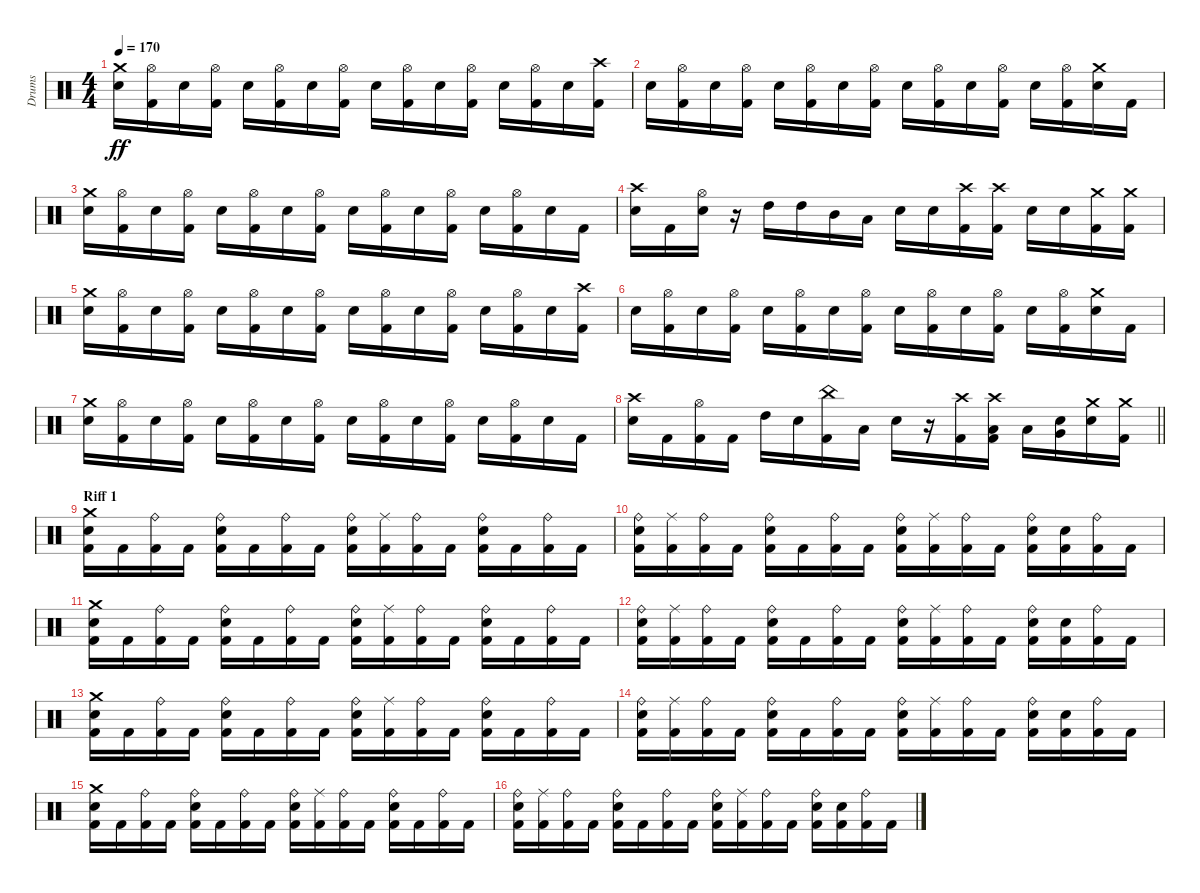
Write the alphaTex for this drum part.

\track ("Drums" "Drums") {instrument percussion}
\staff {score}
\articulation defaults
\ts (4 4)
\tempo 170
\clef neutral
\ks c
("Crash medium (hit)" "Snare (hit) 2").16{dy ff} ("Hi-Hat (open)" "Kick (hit) 2").16 "Snare (hit) 2".16 ("Hi-Hat (open)" "Kick (hit) 2").16 "Snare (hit) 2".16 ("Hi-Hat (open)" "Kick (hit) 2").16 "Snare (hit) 2".16 ("Hi-Hat (open)" "Kick (hit) 2").16 "Snare (hit) 2".16 ("Hi-Hat (open)" "Kick (hit) 2").16 "Snare (hit) 2".16 ("Hi-Hat (open)" "Kick (hit) 2").16 "Snare (hit) 2".16 ("Hi-Hat (open)" "Kick (hit) 2").16 "Snare (hit) 2".16 ("Crash high (hit)" "Kick (hit) 2").16 |
"Snare (hit) 2".16 ("Hi-Hat (open)" "Kick (hit) 2").16 "Snare (hit) 2".16 ("Hi-Hat (open)" "Kick (hit) 2").16 "Snare (hit) 2".16 ("Hi-Hat (open)" "Kick (hit) 2").16 "Snare (hit) 2".16 ("Hi-Hat (open)" "Kick (hit) 2").16 "Snare (hit) 2".16 ("Hi-Hat (open)" "Kick (hit) 2").16 "Snare (hit) 2".16 ("Hi-Hat (open)" "Kick (hit) 2").16 "Snare (hit) 2".16 ("Hi-Hat (open)" "Kick (hit) 2").16 ("Crash medium (hit)" "Snare (hit) 2").16 "Kick (hit) 2".16 |
("Crash medium (hit)" "Snare (hit) 2").16 ("Hi-Hat (open)" "Kick (hit) 2").16 "Snare (hit) 2".16 ("Hi-Hat (open)" "Kick (hit) 2").16 "Snare (hit) 2".16 ("Hi-Hat (open)" "Kick (hit) 2").16 "Snare (hit) 2".16 ("Hi-Hat (open)" "Kick (hit) 2").16 "Snare (hit) 2".16 ("Hi-Hat (open)" "Kick (hit) 2").16 "Snare (hit) 2".16 ("Hi-Hat (open)" "Kick (hit) 2").16 "Snare (hit) 2".16 ("Hi-Hat (open)" "Kick (hit) 2").16 "Snare (hit) 2".16 "Kick (hit) 2".16 |
("Crash high (hit)" "Snare (hit) 2").16 "Kick (hit) 2".16 ("Hi-Hat (open)" "Snare (hit) 2").16 r.16 "High Tom (hit)".16 "High Tom (hit)".16 "Mid Tom (hit)".16 "Low Tom (hit)".16 "Snare (hit) 2".16 "Snare (hit) 2".16 ("Crash high (hit)" "Kick (hit) 2").16 ("Crash high (hit)" "Kick (hit) 2").16 "Snare (hit) 2".16 "Snare (hit) 2".16 ("Crash medium (hit)" "Kick (hit) 2").16 ("Crash medium (hit)" "Kick (hit) 2").16 |
("Crash medium (hit)" "Snare (hit) 2").16 ("Hi-Hat (open)" "Kick (hit) 2").16 "Snare (hit) 2".16 ("Hi-Hat (open)" "Kick (hit) 2").16 "Snare (hit) 2".16 ("Hi-Hat (open)" "Kick (hit) 2").16 "Snare (hit) 2".16 ("Hi-Hat (open)" "Kick (hit) 2").16 "Snare (hit) 2".16 ("Hi-Hat (open)" "Kick (hit) 2").16 "Snare (hit) 2".16 ("Hi-Hat (open)" "Kick (hit) 2").16 "Snare (hit) 2".16 ("Hi-Hat (open)" "Kick (hit) 2").16 "Snare (hit) 2".16 ("Crash high (hit)" "Kick (hit) 2").16 |
"Snare (hit) 2".16 ("Hi-Hat (open)" "Kick (hit) 2").16 "Snare (hit) 2".16 ("Hi-Hat (open)" "Kick (hit) 2").16 "Snare (hit) 2".16 ("Hi-Hat (open)" "Kick (hit) 2").16 "Snare (hit) 2".16 ("Hi-Hat (open)" "Kick (hit) 2").16 "Snare (hit) 2".16 ("Hi-Hat (open)" "Kick (hit) 2").16 "Snare (hit) 2".16 ("Hi-Hat (open)" "Kick (hit) 2").16 "Snare (hit) 2".16 ("Hi-Hat (open)" "Kick (hit) 2").16 ("Crash medium (hit)" "Snare (hit) 2").16 "Kick (hit) 2".16 |
("Crash medium (hit)" "Snare (hit) 2").16 ("Hi-Hat (open)" "Kick (hit) 2").16 "Snare (hit) 2".16 ("Hi-Hat (open)" "Kick (hit) 2").16 "Snare (hit) 2".16 ("Hi-Hat (open)" "Kick (hit) 2").16 "Snare (hit) 2".16 ("Hi-Hat (open)" "Kick (hit) 2").16 "Snare (hit) 2".16 ("Hi-Hat (open)" "Kick (hit) 2").16 "Snare (hit) 2".16 ("Hi-Hat (open)" "Kick (hit) 2").16 "Snare (hit) 2".16 ("Hi-Hat (open)" "Kick (hit) 2").16 "Snare (hit) 2".16 "Kick (hit) 2".16 |
\barLineRight lightlight
("Crash high (hit)" "Snare (hit) 2").16 "Kick (hit) 2".16 ("Hi-Hat (open)" "Kick (hit) 2").16 "Kick (hit) 2".16 "High Tom (hit)".16 "Snare (hit) 2".16 ("China (hit)" "Kick (hit) 2").16 "Low Tom (hit)".16 "Snare (hit) 2".16 r.16 ("Crash high (hit)" "Kick (hit) 2").16 ("Crash high (hit)" "Kick (hit) 2" "Low Tom (hit)").16 "Low Tom (hit)".16 ("Snare (hit) 2" "Very Low Tom (hit)").16 ("Crash medium (hit)" "Snare (hit) 2").16 ("Crash medium (hit)" "Kick (hit) 2").16 |
\section ("" "Riff 1")
("Crash medium (hit)" "Kick (hit) 2" "Snare (hit) 2").16 "Kick (hit) 2".16 ("Kick (hit) 2" "Ride (bell)").16 "Kick (hit) 2".16 ("Kick (hit) 2" "Snare (hit) 2" "Ride (bell)").16 "Kick (hit) 2".16 ("Kick (hit) 2" "Ride (bell)").16 "Kick (hit) 2".16 ("Kick (hit) 2" "Snare (hit) 2" "Ride (bell)").16 ("Kick (hit) 2" "Ride (middle)").16 ("Kick (hit) 2" "Ride (bell)").16 "Kick (hit) 2".16 ("Kick (hit) 2" "Snare (hit) 2" "Ride (bell)").16 "Kick (hit) 2".16 ("Kick (hit) 2" "Ride (bell)").16 "Kick (hit) 2".16 |
("Kick (hit) 2" "Snare (hit) 2" "Ride (bell)").16 ("Kick (hit) 2" "Ride (middle)").16 ("Kick (hit) 2" "Ride (bell)").16 "Kick (hit) 2".16 ("Kick (hit) 2" "Snare (hit) 2" "Ride (bell)").16 "Kick (hit) 2".16 ("Kick (hit) 2" "Ride (bell)").16 "Kick (hit) 2".16 ("Kick (hit) 2" "Snare (hit) 2" "Ride (bell)").16 ("Kick (hit) 2" "Ride (middle)").16 ("Kick (hit) 2" "Ride (bell)").16 "Kick (hit) 2".16 ("Kick (hit) 2" "Snare (hit) 2" "Ride (bell)").16 ("Kick (hit) 2" "Snare (hit) 2").16 ("Kick (hit) 2" "Ride (bell)").16 "Kick (hit) 2".16 |
("Crash medium (hit)" "Kick (hit) 2" "Snare (hit) 2").16 "Kick (hit) 2".16 ("Kick (hit) 2" "Ride (bell)").16 "Kick (hit) 2".16 ("Kick (hit) 2" "Snare (hit) 2" "Ride (bell)").16 "Kick (hit) 2".16 ("Kick (hit) 2" "Ride (bell)").16 "Kick (hit) 2".16 ("Kick (hit) 2" "Snare (hit) 2" "Ride (bell)").16 ("Kick (hit) 2" "Ride (middle)").16 ("Kick (hit) 2" "Ride (bell)").16 "Kick (hit) 2".16 ("Kick (hit) 2" "Snare (hit) 2" "Ride (bell)").16 "Kick (hit) 2".16 ("Kick (hit) 2" "Ride (bell)").16 "Kick (hit) 2".16 |
("Kick (hit) 2" "Snare (hit) 2" "Ride (bell)").16 ("Kick (hit) 2" "Ride (middle)").16 ("Kick (hit) 2" "Ride (bell)").16 "Kick (hit) 2".16 ("Kick (hit) 2" "Snare (hit) 2" "Ride (bell)").16 "Kick (hit) 2".16 ("Kick (hit) 2" "Ride (bell)").16 "Kick (hit) 2".16 ("Kick (hit) 2" "Snare (hit) 2" "Ride (bell)").16 ("Kick (hit) 2" "Ride (middle)").16 ("Kick (hit) 2" "Ride (bell)").16 "Kick (hit) 2".16 ("Kick (hit) 2" "Snare (hit) 2" "Ride (bell)").16 ("Kick (hit) 2" "Snare (hit) 2").16 ("Kick (hit) 2" "Ride (bell)").16 "Kick (hit) 2".16 |
("Crash medium (hit)" "Kick (hit) 2" "Snare (hit) 2").16 "Kick (hit) 2".16 ("Kick (hit) 2" "Ride (bell)").16 "Kick (hit) 2".16 ("Kick (hit) 2" "Snare (hit) 2" "Ride (bell)").16 "Kick (hit) 2".16 ("Kick (hit) 2" "Ride (bell)").16 "Kick (hit) 2".16 ("Kick (hit) 2" "Snare (hit) 2" "Ride (bell)").16 ("Kick (hit) 2" "Ride (middle)").16 ("Kick (hit) 2" "Ride (bell)").16 "Kick (hit) 2".16 ("Kick (hit) 2" "Snare (hit) 2" "Ride (bell)").16 "Kick (hit) 2".16 ("Kick (hit) 2" "Ride (bell)").16 "Kick (hit) 2".16 |
("Kick (hit) 2" "Snare (hit) 2" "Ride (bell)").16 ("Kick (hit) 2" "Ride (middle)").16 ("Kick (hit) 2" "Ride (bell)").16 "Kick (hit) 2".16 ("Kick (hit) 2" "Snare (hit) 2" "Ride (bell)").16 "Kick (hit) 2".16 ("Kick (hit) 2" "Ride (bell)").16 "Kick (hit) 2".16 ("Kick (hit) 2" "Snare (hit) 2" "Ride (bell)").16 ("Kick (hit) 2" "Ride (middle)").16 ("Kick (hit) 2" "Ride (bell)").16 "Kick (hit) 2".16 ("Kick (hit) 2" "Snare (hit) 2" "Ride (bell)").16 ("Kick (hit) 2" "Snare (hit) 2").16 ("Kick (hit) 2" "Ride (bell)").16 "Kick (hit) 2".16 |
("Crash medium (hit)" "Kick (hit) 2" "Snare (hit) 2").16 "Kick (hit) 2".16 ("Kick (hit) 2" "Ride (bell)").16 "Kick (hit) 2".16 ("Kick (hit) 2" "Snare (hit) 2" "Ride (bell)").16 "Kick (hit) 2".16 ("Kick (hit) 2" "Ride (bell)").16 "Kick (hit) 2".16 ("Kick (hit) 2" "Snare (hit) 2" "Ride (bell)").16 ("Kick (hit) 2" "Ride (middle)").16 ("Kick (hit) 2" "Ride (bell)").16 "Kick (hit) 2".16 ("Kick (hit) 2" "Snare (hit) 2" "Ride (bell)").16 "Kick (hit) 2".16 ("Kick (hit) 2" "Ride (bell)").16 "Kick (hit) 2".16 |
("Kick (hit) 2" "Snare (hit) 2" "Ride (bell)").16 ("Kick (hit) 2" "Ride (middle)").16 ("Kick (hit) 2" "Ride (bell)").16 "Kick (hit) 2".16 ("Kick (hit) 2" "Snare (hit) 2" "Ride (bell)").16 "Kick (hit) 2".16 ("Kick (hit) 2" "Ride (bell)").16 "Kick (hit) 2".16 ("Kick (hit) 2" "Snare (hit) 2" "Ride (bell)").16 ("Kick (hit) 2" "Ride (middle)").16 ("Kick (hit) 2" "Ride (bell)").16 "Kick (hit) 2".16 ("Kick (hit) 2" "Snare (hit) 2" "Ride (bell)").16 ("Kick (hit) 2" "Snare (hit) 2").16 ("Kick (hit) 2" "Ride (bell)").16 "Kick (hit) 2".16
